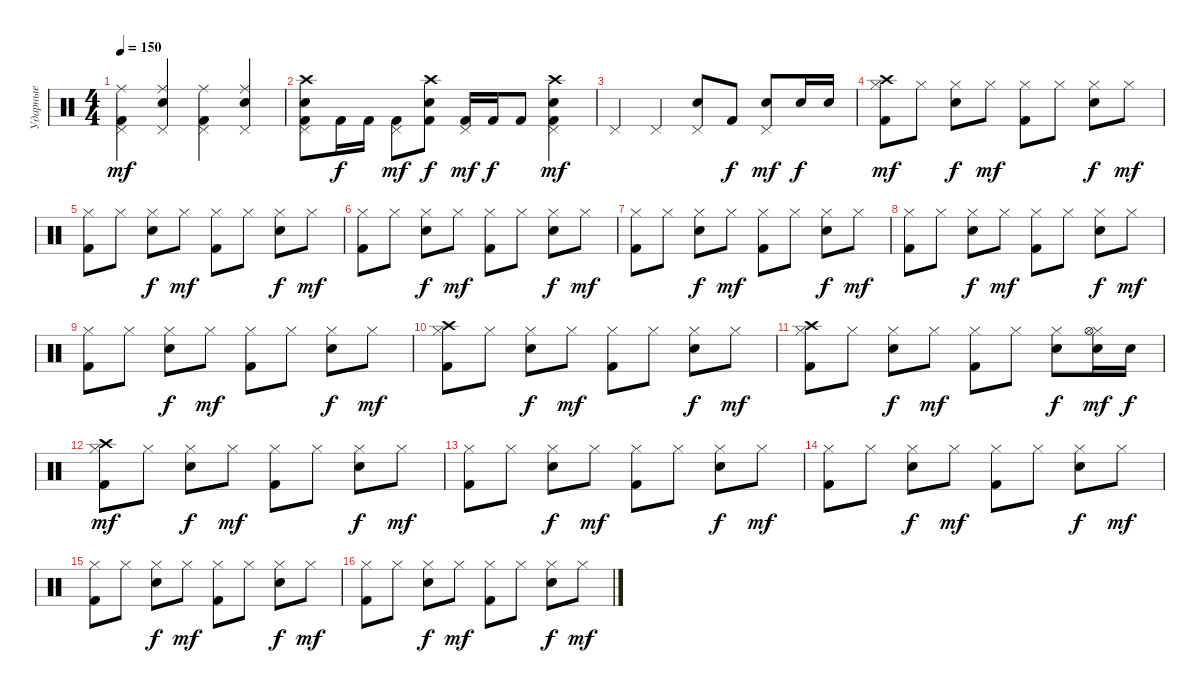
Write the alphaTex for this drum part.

\track ("Ударные" "Ударные") {instrument percussion}
\staff {score}
\articulation defaults
\ts (4 4)
\tempo 150
\clef neutral
\ks c
("Kick (hit) 2" "Pedal Hi-Hat (hit)" "Ride (middle)").4{dy mf} ("Snare (hit) 2" "Pedal Hi-Hat (hit)" "Ride (middle)").4 ("Kick (hit) 2" "Pedal Hi-Hat (hit)" "Ride (middle)").4 ("Snare (hit) 2" "Pedal Hi-Hat (hit)" "Ride (middle)").4 |
("Kick (hit) 2" "Snare (hit) 2" "Crash high (hit)" "Pedal Hi-Hat (hit)").8 "Kick (hit) 2".16{dy f} "Kick (hit) 2".16 ("Kick (hit) 2" "Pedal Hi-Hat (hit)").8{dy mf} ("Kick (hit) 2" "Snare (hit) 2" "Crash high (hit)").8{dy f} ("Kick (hit) 2" "Pedal Hi-Hat (hit)").16{dy mf} "Kick (hit) 2".16{dy f} "Kick (hit) 2".8 ("Kick (hit) 2" "Snare (hit) 2" "Crash high (hit)" "Pedal Hi-Hat (hit)").4{dy mf} |
"Pedal Hi-Hat (hit)".4 "Pedal Hi-Hat (hit)".4 ("Snare (hit) 2" "Pedal Hi-Hat (hit)").8 "Kick (hit) 2".8{dy f} ("Snare (hit) 2" "Pedal Hi-Hat (hit)").8{dy mf} "Snare (hit) 2".16{dy f} "Snare (hit) 2".16 |
("Kick (hit) 2" "Crash high (hit)" "Hi-Hat (closed)").8{dy mf} "Hi-Hat (closed)".8 ("Snare (hit) 2" "Hi-Hat (closed)").8{dy f} "Hi-Hat (closed)".8{dy mf} ("Kick (hit) 2" "Hi-Hat (closed)").8 "Hi-Hat (closed)".8 ("Snare (hit) 2" "Hi-Hat (closed)").8{dy f} "Hi-Hat (closed)".8{dy mf} |
("Kick (hit) 2" "Hi-Hat (closed)").8 "Hi-Hat (closed)".8 ("Snare (hit) 2" "Hi-Hat (closed)").8{dy f} "Hi-Hat (closed)".8{dy mf} ("Kick (hit) 2" "Hi-Hat (closed)").8 "Hi-Hat (closed)".8 ("Snare (hit) 2" "Hi-Hat (closed)").8{dy f} "Hi-Hat (closed)".8{dy mf} |
("Kick (hit) 2" "Hi-Hat (closed)").8 "Hi-Hat (closed)".8 ("Snare (hit) 2" "Hi-Hat (closed)").8{dy f} "Hi-Hat (closed)".8{dy mf} ("Kick (hit) 2" "Hi-Hat (closed)").8 "Hi-Hat (closed)".8 ("Snare (hit) 2" "Hi-Hat (closed)").8{dy f} "Hi-Hat (closed)".8{dy mf} |
("Kick (hit) 2" "Hi-Hat (closed)").8 "Hi-Hat (closed)".8 ("Snare (hit) 2" "Hi-Hat (closed)").8{dy f} "Hi-Hat (closed)".8{dy mf} ("Kick (hit) 2" "Hi-Hat (closed)").8 "Hi-Hat (closed)".8 ("Snare (hit) 2" "Hi-Hat (closed)").8{dy f} "Hi-Hat (closed)".8{dy mf} |
("Kick (hit) 2" "Hi-Hat (closed)").8 "Hi-Hat (closed)".8 ("Snare (hit) 2" "Hi-Hat (closed)").8{dy f} "Hi-Hat (closed)".8{dy mf} ("Kick (hit) 2" "Hi-Hat (closed)").8 "Hi-Hat (closed)".8 ("Snare (hit) 2" "Hi-Hat (closed)").8{dy f} "Hi-Hat (closed)".8{dy mf} |
("Kick (hit) 2" "Hi-Hat (closed)").8 "Hi-Hat (closed)".8 ("Snare (hit) 2" "Hi-Hat (closed)").8{dy f} "Hi-Hat (closed)".8{dy mf} ("Kick (hit) 2" "Hi-Hat (closed)").8 "Hi-Hat (closed)".8 ("Snare (hit) 2" "Hi-Hat (closed)").8{dy f} "Hi-Hat (closed)".8{dy mf} |
("Kick (hit) 2" "Crash high (hit)" "Hi-Hat (closed)").8 "Hi-Hat (closed)".8 ("Snare (hit) 2" "Hi-Hat (closed)").8{dy f} "Hi-Hat (closed)".8{dy mf} ("Kick (hit) 2" "Hi-Hat (closed)").8 "Hi-Hat (closed)".8 ("Snare (hit) 2" "Hi-Hat (closed)").8{dy f} "Hi-Hat (closed)".8{dy mf} |
("Kick (hit) 2" "Crash high (hit)" "Hi-Hat (closed)").8 "Hi-Hat (closed)".8 ("Snare (hit) 2" "Hi-Hat (closed)").8{dy f} "Hi-Hat (closed)".8{dy mf} ("Kick (hit) 2" "Hi-Hat (closed)").8 "Hi-Hat (closed)".8 ("Snare (hit) 2" "Hi-Hat (closed)").8{dy f} ("Snare (hit) 2" "Hi-Hat (closed)" "Hi-Hat (open)").16{dy mf} "Snare (hit) 2".16{dy f} |
("Kick (hit) 2" "Crash high (hit)" "Hi-Hat (closed)").8{dy mf} "Hi-Hat (closed)".8 ("Snare (hit) 2" "Hi-Hat (closed)").8{dy f} "Hi-Hat (closed)".8{dy mf} ("Kick (hit) 2" "Hi-Hat (closed)").8 "Hi-Hat (closed)".8 ("Snare (hit) 2" "Hi-Hat (closed)").8{dy f} "Hi-Hat (closed)".8{dy mf} |
("Kick (hit) 2" "Hi-Hat (closed)").8 "Hi-Hat (closed)".8 ("Snare (hit) 2" "Hi-Hat (closed)").8{dy f} "Hi-Hat (closed)".8{dy mf} ("Kick (hit) 2" "Hi-Hat (closed)").8 "Hi-Hat (closed)".8 ("Snare (hit) 2" "Hi-Hat (closed)").8{dy f} "Hi-Hat (closed)".8{dy mf} |
("Kick (hit) 2" "Hi-Hat (closed)").8 "Hi-Hat (closed)".8 ("Snare (hit) 2" "Hi-Hat (closed)").8{dy f} "Hi-Hat (closed)".8{dy mf} ("Kick (hit) 2" "Hi-Hat (closed)").8 "Hi-Hat (closed)".8 ("Snare (hit) 2" "Hi-Hat (closed)").8{dy f} "Hi-Hat (closed)".8{dy mf} |
("Kick (hit) 2" "Hi-Hat (closed)").8 "Hi-Hat (closed)".8 ("Snare (hit) 2" "Hi-Hat (closed)").8{dy f} "Hi-Hat (closed)".8{dy mf} ("Kick (hit) 2" "Hi-Hat (closed)").8 "Hi-Hat (closed)".8 ("Snare (hit) 2" "Hi-Hat (closed)").8{dy f} "Hi-Hat (closed)".8{dy mf} |
("Kick (hit) 2" "Hi-Hat (closed)").8 "Hi-Hat (closed)".8 ("Snare (hit) 2" "Hi-Hat (closed)").8{dy f} "Hi-Hat (closed)".8{dy mf} ("Kick (hit) 2" "Hi-Hat (closed)").8 "Hi-Hat (closed)".8 ("Snare (hit) 2" "Hi-Hat (closed)").8{dy f} "Hi-Hat (closed)".8{dy mf}
